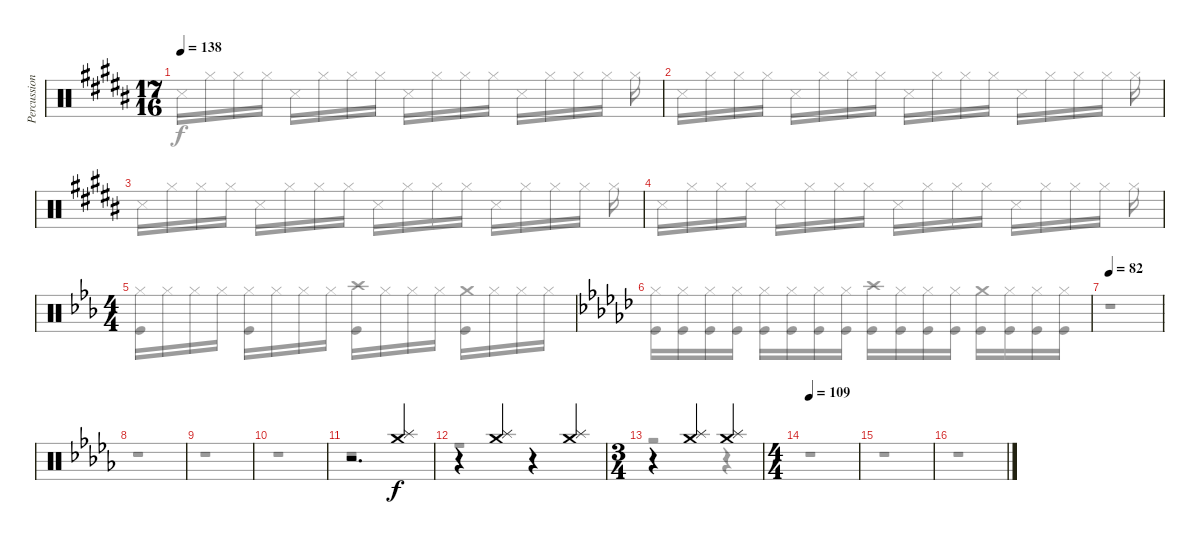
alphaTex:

\track ("Percussion" "Percussion") {instrument percussion}
\staff {score}
\articulation defaults
\voice
\ts (17 16)
\tempo 138
\clef neutral
\ks b
|
|
|
|
\ts (4 4)
\ks eb
|
\ks ebminor
|
\tempo 82
|
\ks bbminor
|
|
|
r.2{d} ("Splash (hit)" "Crash medium (hit)").4 |
r.4 ("Splash (hit)" "Crash medium (hit)").4 r.4 ("Splash (hit)" "Crash medium (hit)").4 |
\ts (3 4)
r.4 ("Splash (hit)" "Crash medium (hit)").4 ("Splash (hit)" "Crash medium (hit)").4 |
\ts (4 4)
\tempo 109
|
|
\voice
\clef neutral
\ottava regular
\simile none
\ks b "Snare (side stick) 3".16{dy f} "Hi-Hat (closed)".16 "Hi-Hat (closed)".16 "Hi-Hat (closed)".16 "Snare (side stick) 3".16 "Hi-Hat (closed)".16 "Hi-Hat (closed)".16 "Hi-Hat (closed)".16 "Snare (side stick) 3".16 "Hi-Hat (closed)".16 "Hi-Hat (closed)".16 "Hi-Hat (closed)".16 "Snare (side stick) 3".16 "Hi-Hat (closed)".16 "Hi-Hat (closed)".16 "Hi-Hat (closed)".16 "Hi-Hat (closed)".16
|
"Snare (side stick) 3".16 "Hi-Hat (closed)".16 "Hi-Hat (closed)".16 "Hi-Hat (closed)".16 "Snare (side stick) 3".16 "Hi-Hat (closed)".16 "Hi-Hat (closed)".16 "Hi-Hat (closed)".16 "Snare (side stick) 3".16 "Hi-Hat (closed)".16 "Hi-Hat (closed)".16 "Hi-Hat (closed)".16 "Snare (side stick) 3".16 "Hi-Hat (closed)".16 "Hi-Hat (closed)".16 "Hi-Hat (closed)".16 "Hi-Hat (closed)".16 |
"Snare (side stick) 3".16 "Hi-Hat (closed)".16 "Hi-Hat (closed)".16 "Hi-Hat (closed)".16 "Snare (side stick) 3".16 "Hi-Hat (closed)".16 "Hi-Hat (closed)".16 "Hi-Hat (closed)".16 "Snare (side stick) 3".16 "Hi-Hat (closed)".16 "Hi-Hat (closed)".16 "Hi-Hat (closed)".16 "Snare (side stick) 3".16 "Hi-Hat (closed)".16 "Hi-Hat (closed)".16 "Hi-Hat (closed)".16 "Hi-Hat (closed)".16 |
"Snare (side stick) 3".16 "Hi-Hat (closed)".16 "Hi-Hat (closed)".16 "Hi-Hat (closed)".16 "Snare (side stick) 3".16 "Hi-Hat (closed)".16 "Hi-Hat (closed)".16 "Hi-Hat (closed)".16 "Snare (side stick) 3".16 "Hi-Hat (closed)".16 "Hi-Hat (closed)".16 "Hi-Hat (closed)".16 "Snare (side stick) 3".16 "Hi-Hat (closed)".16 "Hi-Hat (closed)".16 "Hi-Hat (closed)".16 "Hi-Hat (closed)".16 |
\ks eb
("Hi-Hat (closed)" "Kick (hit)").16 "Hi-Hat (closed)".16 "Hi-Hat (closed)".16 "Hi-Hat (closed)".16 ("Hi-Hat (closed)" "Kick (hit)").16 "Hi-Hat (closed)".16 "Hi-Hat (closed)".16 "Hi-Hat (closed)".16 ("Crash high (hit)" "Kick (hit)").16 "Hi-Hat (closed)".16 "Hi-Hat (closed)".16 "Hi-Hat (closed)".16 ("Crash medium (hit)" "Kick (hit)").16 "Hi-Hat (closed)".16 "Hi-Hat (closed)".16 "Hi-Hat (closed)".16 |
\ks ebminor
("Hi-Hat (closed)" "Kick (hit)").16 ("Hi-Hat (closed)" "Kick (hit)").16 ("Hi-Hat (closed)" "Kick (hit)").16 ("Hi-Hat (closed)" "Kick (hit)").16 ("Hi-Hat (closed)" "Kick (hit)").16 ("Hi-Hat (closed)" "Kick (hit)").16 ("Hi-Hat (closed)" "Kick (hit)").16 ("Hi-Hat (closed)" "Kick (hit)").16 ("Crash high (hit)" "Kick (hit)").16 ("Hi-Hat (closed)" "Kick (hit)").16 ("Hi-Hat (closed)" "Kick (hit)").16 ("Hi-Hat (closed)" "Kick (hit)").16 ("Crash medium (hit)" "Kick (hit)").16 ("Hi-Hat (closed)" "Kick (hit)").16 ("Hi-Hat (closed)" "Kick (hit)").16 ("Hi-Hat (closed)" "Kick (hit)").16 |
r.1 |
\ks bbminor
r.1 |
r.1 |
r.1 |
r.1 |
r.1 |
r.2 r.4 |
r.1 |
r.1 |
r.1
